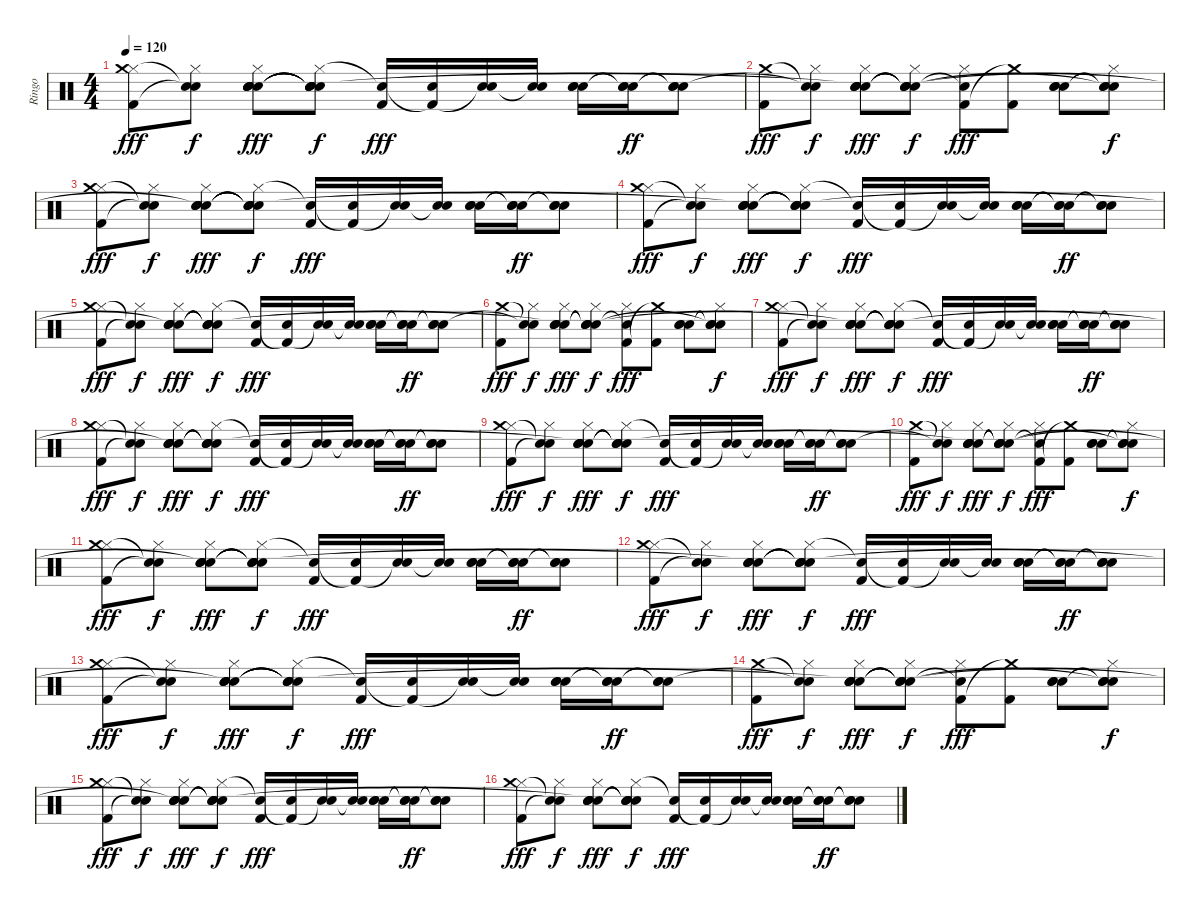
\track ("Ringo" "Ringo") {instrument percussion}
\staff {score}
\articulation defaults
\ts (4 4)
\tempo 120
\clef neutral
\ks c
("Hi-Hat (closed)" "Kick (hit) 2" "Crash medium (hit)").8{dy fff} ("Hi-Hat (closed)" "Snare (hit)"{t} "Snare (hit)"{t}).8{dy f} ("Hand Clap (hit)" "Hi-Hat (closed)" "Electric Snare (hit)" "Hand Clap (hit)" "Snare (hit)"{t}).8{dy fff} ("Snare (hit)"{t} "Hi-Hat (closed)" "Snare (hit)"{t} "Snare (hit)"{t} "Snare (hit)"{t}).8{dy f} ("Kick (hit) 2" "Snare (hit)"{t}).16{dy fff} ("Electric Snare (hit)" "Kick (hit) 2"{t}).16 ("Electric Snare (hit)" "Snare (hit)"{t}).16 ("Electric Snare (hit)" "Electric Snare (hit)"{t}).16 ("Hand Clap (hit)" "Electric Snare (hit)" "Hand Clap (hit)").16 ("Snare (hit)"{t} "Electric Snare (hit)" "Snare (hit)"{t}).16{dy ff} ("Snare (hit)"{t} "Electric Snare (hit)" "Snare (hit)"{t}).8 |
("Kick (hit) 2" "Crash medium (hit)").8{dy fff} ("Hi-Hat (closed)" "Snare (hit)"{t} "Snare (hit)"{t}).8{dy f} ("Hand Clap (hit)" "Hi-Hat (closed)" "Electric Snare (hit)" "Hand Clap (hit)" "Snare (hit)"{t}).8{dy fff} ("Snare (hit)"{t} "Hi-Hat (closed)" "Snare (hit)"{t} "Snare (hit)"{t} "Snare (hit)"{t}).8{dy f} ("Hi-Hat (closed)" "Kick (hit) 2" "Snare (hit)"{t}).8{dy fff} ("Kick (hit) 2" "Crash medium (hit)"{t}).8 ("Hand Clap (hit)" "Electric Snare (hit)" "Hand Clap (hit)").8 ("Snare (hit)"{t} "Hi-Hat (closed)" "Snare (hit)"{t} "Snare (hit)"{t}).8{dy f} |
("Hi-Hat (closed)" "Kick (hit) 2" "Crash medium (hit)").8{dy fff} ("Hi-Hat (closed)" "Snare (hit)"{t} "Snare (hit)"{t}).8{dy f} ("Hand Clap (hit)" "Hi-Hat (closed)" "Electric Snare (hit)" "Hand Clap (hit)" "Snare (hit)"{t}).8{dy fff} ("Snare (hit)"{t} "Hi-Hat (closed)" "Snare (hit)"{t} "Snare (hit)"{t} "Snare (hit)"{t}).8{dy f} ("Kick (hit) 2" "Snare (hit)"{t}).16{dy fff} ("Electric Snare (hit)" "Kick (hit) 2"{t}).16 ("Electric Snare (hit)" "Snare (hit)"{t}).16 ("Electric Snare (hit)" "Electric Snare (hit)"{t}).16 ("Hand Clap (hit)" "Electric Snare (hit)" "Hand Clap (hit)").16 ("Snare (hit)"{t} "Electric Snare (hit)" "Snare (hit)"{t}).16{dy ff} ("Snare (hit)"{t} "Electric Snare (hit)" "Snare (hit)"{t}).8 |
("Hi-Hat (closed)" "Kick (hit) 2" "Crash medium (hit)").8{dy fff} ("Hi-Hat (closed)" "Snare (hit)"{t} "Snare (hit)"{t}).8{dy f} ("Hand Clap (hit)" "Hi-Hat (closed)" "Electric Snare (hit)" "Hand Clap (hit)" "Snare (hit)"{t}).8{dy fff} ("Snare (hit)"{t} "Hi-Hat (closed)" "Snare (hit)"{t} "Snare (hit)"{t} "Snare (hit)"{t}).8{dy f} ("Kick (hit) 2" "Snare (hit)"{t}).16{dy fff} ("Electric Snare (hit)" "Kick (hit) 2"{t}).16 ("Electric Snare (hit)" "Snare (hit)"{t}).16 ("Electric Snare (hit)" "Electric Snare (hit)"{t}).16 ("Hand Clap (hit)" "Electric Snare (hit)" "Hand Clap (hit)").16 ("Snare (hit)"{t} "Electric Snare (hit)" "Snare (hit)"{t}).16{dy ff} ("Snare (hit)"{t} "Electric Snare (hit)" "Snare (hit)"{t}).8 |
("Hi-Hat (closed)" "Kick (hit) 2" "Crash medium (hit)").8{dy fff} ("Hi-Hat (closed)" "Snare (hit)"{t} "Snare (hit)"{t}).8{dy f} ("Hand Clap (hit)" "Hi-Hat (closed)" "Electric Snare (hit)" "Hand Clap (hit)" "Snare (hit)"{t}).8{dy fff} ("Snare (hit)"{t} "Hi-Hat (closed)" "Snare (hit)"{t} "Snare (hit)"{t} "Snare (hit)"{t}).8{dy f} ("Kick (hit) 2" "Snare (hit)"{t}).16{dy fff} ("Electric Snare (hit)" "Kick (hit) 2"{t}).16 ("Electric Snare (hit)" "Snare (hit)"{t}).16 ("Electric Snare (hit)" "Electric Snare (hit)"{t}).16 ("Hand Clap (hit)" "Electric Snare (hit)" "Hand Clap (hit)").16 ("Snare (hit)"{t} "Electric Snare (hit)" "Snare (hit)"{t}).16{dy ff} ("Snare (hit)"{t} "Electric Snare (hit)" "Snare (hit)"{t}).8 |
("Kick (hit) 2" "Crash medium (hit)").8{dy fff} ("Hi-Hat (closed)" "Snare (hit)"{t} "Snare (hit)"{t}).8{dy f} ("Hand Clap (hit)" "Hi-Hat (closed)" "Electric Snare (hit)" "Hand Clap (hit)" "Snare (hit)"{t}).8{dy fff} ("Snare (hit)"{t} "Hi-Hat (closed)" "Snare (hit)"{t} "Snare (hit)"{t} "Snare (hit)"{t}).8{dy f} ("Hi-Hat (closed)" "Kick (hit) 2" "Snare (hit)"{t}).8{dy fff} ("Kick (hit) 2" "Crash medium (hit)"{t}).8 ("Hand Clap (hit)" "Electric Snare (hit)" "Hand Clap (hit)").8 ("Snare (hit)"{t} "Hi-Hat (closed)" "Snare (hit)"{t} "Snare (hit)"{t}).8{dy f} |
("Hi-Hat (closed)" "Kick (hit) 2" "Crash medium (hit)").8{dy fff} ("Hi-Hat (closed)" "Snare (hit)"{t} "Snare (hit)"{t}).8{dy f} ("Hand Clap (hit)" "Hi-Hat (closed)" "Electric Snare (hit)" "Hand Clap (hit)" "Snare (hit)"{t}).8{dy fff} ("Snare (hit)"{t} "Hi-Hat (closed)" "Snare (hit)"{t} "Snare (hit)"{t} "Snare (hit)"{t}).8{dy f} ("Kick (hit) 2" "Snare (hit)"{t}).16{dy fff} ("Electric Snare (hit)" "Kick (hit) 2"{t}).16 ("Electric Snare (hit)" "Snare (hit)"{t}).16 ("Electric Snare (hit)" "Electric Snare (hit)"{t}).16 ("Hand Clap (hit)" "Electric Snare (hit)" "Hand Clap (hit)").16 ("Snare (hit)"{t} "Electric Snare (hit)" "Snare (hit)"{t}).16{dy ff} ("Snare (hit)"{t} "Electric Snare (hit)" "Snare (hit)"{t}).8 |
("Hi-Hat (closed)" "Kick (hit) 2" "Crash medium (hit)").8{dy fff} ("Hi-Hat (closed)" "Snare (hit)"{t} "Snare (hit)"{t}).8{dy f} ("Hand Clap (hit)" "Hi-Hat (closed)" "Electric Snare (hit)" "Hand Clap (hit)" "Snare (hit)"{t}).8{dy fff} ("Snare (hit)"{t} "Hi-Hat (closed)" "Snare (hit)"{t} "Snare (hit)"{t} "Snare (hit)"{t}).8{dy f} ("Kick (hit) 2" "Snare (hit)"{t}).16{dy fff} ("Electric Snare (hit)" "Kick (hit) 2"{t}).16 ("Electric Snare (hit)" "Snare (hit)"{t}).16 ("Electric Snare (hit)" "Electric Snare (hit)"{t}).16 ("Hand Clap (hit)" "Electric Snare (hit)" "Hand Clap (hit)").16 ("Snare (hit)"{t} "Electric Snare (hit)" "Snare (hit)"{t}).16{dy ff} ("Snare (hit)"{t} "Electric Snare (hit)" "Snare (hit)"{t}).8 |
("Hi-Hat (closed)" "Kick (hit) 2" "Crash medium (hit)").8{dy fff} ("Hi-Hat (closed)" "Snare (hit)"{t} "Snare (hit)"{t}).8{dy f} ("Hand Clap (hit)" "Hi-Hat (closed)" "Electric Snare (hit)" "Hand Clap (hit)" "Snare (hit)"{t}).8{dy fff} ("Snare (hit)"{t} "Hi-Hat (closed)" "Snare (hit)"{t} "Snare (hit)"{t} "Snare (hit)"{t}).8{dy f} ("Kick (hit) 2" "Snare (hit)"{t}).16{dy fff} ("Electric Snare (hit)" "Kick (hit) 2"{t}).16 ("Electric Snare (hit)" "Snare (hit)"{t}).16 ("Electric Snare (hit)" "Electric Snare (hit)"{t}).16 ("Hand Clap (hit)" "Electric Snare (hit)" "Hand Clap (hit)").16 ("Snare (hit)"{t} "Electric Snare (hit)" "Snare (hit)"{t}).16{dy ff} ("Snare (hit)"{t} "Electric Snare (hit)" "Snare (hit)"{t}).8 |
("Kick (hit) 2" "Crash medium (hit)").8{dy fff} ("Hi-Hat (closed)" "Snare (hit)"{t} "Snare (hit)"{t}).8{dy f} ("Hand Clap (hit)" "Hi-Hat (closed)" "Electric Snare (hit)" "Hand Clap (hit)" "Snare (hit)"{t}).8{dy fff} ("Snare (hit)"{t} "Hi-Hat (closed)" "Snare (hit)"{t} "Snare (hit)"{t} "Snare (hit)"{t}).8{dy f} ("Hi-Hat (closed)" "Kick (hit) 2" "Snare (hit)"{t}).8{dy fff} ("Kick (hit) 2" "Crash medium (hit)"{t}).8 ("Hand Clap (hit)" "Electric Snare (hit)" "Hand Clap (hit)").8 ("Snare (hit)"{t} "Hi-Hat (closed)" "Snare (hit)"{t} "Snare (hit)"{t}).8{dy f} |
("Hi-Hat (closed)" "Kick (hit) 2" "Crash medium (hit)").8{dy fff} ("Hi-Hat (closed)" "Snare (hit)"{t} "Snare (hit)"{t}).8{dy f} ("Hand Clap (hit)" "Hi-Hat (closed)" "Electric Snare (hit)" "Hand Clap (hit)" "Snare (hit)"{t}).8{dy fff} ("Snare (hit)"{t} "Hi-Hat (closed)" "Snare (hit)"{t} "Snare (hit)"{t} "Snare (hit)"{t}).8{dy f} ("Kick (hit) 2" "Snare (hit)"{t}).16{dy fff} ("Electric Snare (hit)" "Kick (hit) 2"{t}).16 ("Electric Snare (hit)" "Snare (hit)"{t}).16 ("Electric Snare (hit)" "Electric Snare (hit)"{t}).16 ("Hand Clap (hit)" "Electric Snare (hit)" "Hand Clap (hit)").16 ("Snare (hit)"{t} "Electric Snare (hit)" "Snare (hit)"{t}).16{dy ff} ("Snare (hit)"{t} "Electric Snare (hit)" "Snare (hit)"{t}).8 |
("Hi-Hat (closed)" "Kick (hit) 2" "Crash medium (hit)").8{dy fff} ("Hi-Hat (closed)" "Snare (hit)"{t} "Snare (hit)"{t}).8{dy f} ("Hand Clap (hit)" "Hi-Hat (closed)" "Electric Snare (hit)" "Hand Clap (hit)" "Snare (hit)"{t}).8{dy fff} ("Snare (hit)"{t} "Hi-Hat (closed)" "Snare (hit)"{t} "Snare (hit)"{t} "Snare (hit)"{t}).8{dy f} ("Kick (hit) 2" "Snare (hit)"{t}).16{dy fff} ("Electric Snare (hit)" "Kick (hit) 2"{t}).16 ("Electric Snare (hit)" "Snare (hit)"{t}).16 ("Electric Snare (hit)" "Electric Snare (hit)"{t}).16 ("Hand Clap (hit)" "Electric Snare (hit)" "Hand Clap (hit)").16 ("Snare (hit)"{t} "Electric Snare (hit)" "Snare (hit)"{t}).16{dy ff} ("Snare (hit)"{t} "Electric Snare (hit)" "Snare (hit)"{t}).8 |
("Hi-Hat (closed)" "Kick (hit) 2" "Crash medium (hit)").8{dy fff} ("Hi-Hat (closed)" "Snare (hit)"{t} "Snare (hit)"{t}).8{dy f} ("Hand Clap (hit)" "Hi-Hat (closed)" "Electric Snare (hit)" "Hand Clap (hit)" "Snare (hit)"{t}).8{dy fff} ("Snare (hit)"{t} "Hi-Hat (closed)" "Snare (hit)"{t} "Snare (hit)"{t} "Snare (hit)"{t}).8{dy f} ("Kick (hit) 2" "Snare (hit)"{t}).16{dy fff} ("Electric Snare (hit)" "Kick (hit) 2"{t}).16 ("Electric Snare (hit)" "Snare (hit)"{t}).16 ("Electric Snare (hit)" "Electric Snare (hit)"{t}).16 ("Hand Clap (hit)" "Electric Snare (hit)" "Hand Clap (hit)").16 ("Snare (hit)"{t} "Electric Snare (hit)" "Snare (hit)"{t}).16{dy ff} ("Snare (hit)"{t} "Electric Snare (hit)" "Snare (hit)"{t}).8 |
("Kick (hit) 2" "Crash medium (hit)").8{dy fff} ("Hi-Hat (closed)" "Snare (hit)"{t} "Snare (hit)"{t}).8{dy f} ("Hand Clap (hit)" "Hi-Hat (closed)" "Electric Snare (hit)" "Hand Clap (hit)" "Snare (hit)"{t}).8{dy fff} ("Snare (hit)"{t} "Hi-Hat (closed)" "Snare (hit)"{t} "Snare (hit)"{t} "Snare (hit)"{t}).8{dy f} ("Hi-Hat (closed)" "Kick (hit) 2" "Snare (hit)"{t}).8{dy fff} ("Kick (hit) 2" "Crash medium (hit)"{t}).8 ("Hand Clap (hit)" "Electric Snare (hit)" "Hand Clap (hit)").8 ("Snare (hit)"{t} "Hi-Hat (closed)" "Snare (hit)"{t} "Snare (hit)"{t}).8{dy f} |
("Hi-Hat (closed)" "Kick (hit) 2" "Crash medium (hit)").8{dy fff} ("Hi-Hat (closed)" "Snare (hit)"{t} "Snare (hit)"{t}).8{dy f} ("Hand Clap (hit)" "Hi-Hat (closed)" "Electric Snare (hit)" "Hand Clap (hit)" "Snare (hit)"{t}).8{dy fff} ("Snare (hit)"{t} "Hi-Hat (closed)" "Snare (hit)"{t} "Snare (hit)"{t} "Snare (hit)"{t}).8{dy f} ("Kick (hit) 2" "Snare (hit)"{t}).16{dy fff} ("Electric Snare (hit)" "Kick (hit) 2"{t}).16 ("Electric Snare (hit)" "Snare (hit)"{t}).16 ("Electric Snare (hit)" "Electric Snare (hit)"{t}).16 ("Hand Clap (hit)" "Electric Snare (hit)" "Hand Clap (hit)").16 ("Snare (hit)"{t} "Electric Snare (hit)" "Snare (hit)"{t}).16{dy ff} ("Snare (hit)"{t} "Electric Snare (hit)" "Snare (hit)"{t}).8 |
("Hi-Hat (closed)" "Kick (hit) 2" "Crash medium (hit)").8{dy fff} ("Hi-Hat (closed)" "Snare (hit)"{t} "Snare (hit)"{t}).8{dy f} ("Hand Clap (hit)" "Hi-Hat (closed)" "Electric Snare (hit)" "Hand Clap (hit)" "Snare (hit)"{t}).8{dy fff} ("Snare (hit)"{t} "Hi-Hat (closed)" "Snare (hit)"{t} "Snare (hit)"{t} "Snare (hit)"{t}).8{dy f} ("Kick (hit) 2" "Snare (hit)"{t}).16{dy fff} ("Electric Snare (hit)" "Kick (hit) 2"{t}).16 ("Electric Snare (hit)" "Snare (hit)"{t}).16 ("Electric Snare (hit)" "Electric Snare (hit)"{t}).16 ("Hand Clap (hit)" "Electric Snare (hit)" "Hand Clap (hit)").16 ("Snare (hit)"{t} "Electric Snare (hit)" "Snare (hit)"{t}).16{dy ff} ("Snare (hit)"{t} "Electric Snare (hit)" "Snare (hit)"{t}).8
